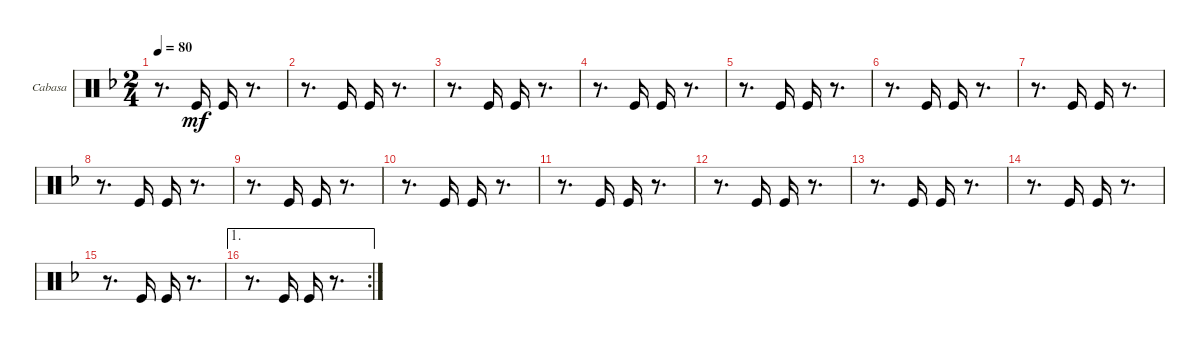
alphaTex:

\defaultSystemsLayout 4
\bracketExtendMode groupsimilarinstruments
\firstSystemTrackNameOrientation horizontal
\otherSystemsTrackNameOrientation horizontal
\track ("Cabasa" "Cabasa") {instrument percussion}
\staff {score}
\articulation defaults
\ts (2 4)
\tempo 80
\clef neutral
\ks f
r.8{d dy mf} "Kick (hit)".16 "Kick (hit)".16 r.8{d} |
r.8{d} "Kick (hit)".16 "Kick (hit)".16 r.8{d} |
r.8{d} "Kick (hit)".16 "Kick (hit)".16 r.8{d} |
r.8{d} "Kick (hit)".16 "Kick (hit)".16 r.8{d} |
r.8{d} "Kick (hit)".16 "Kick (hit)".16 r.8{d} |
r.8{d} "Kick (hit)".16 "Kick (hit)".16 r.8{d} |
r.8{d} "Kick (hit)".16 "Kick (hit)".16 r.8{d} |
r.8{d} "Kick (hit)".16 "Kick (hit)".16 r.8{d} |
r.8{d} "Kick (hit)".16 "Kick (hit)".16 r.8{d} |
r.8{d} "Kick (hit)".16 "Kick (hit)".16 r.8{d} |
r.8{d} "Kick (hit)".16 "Kick (hit)".16 r.8{d} |
r.8{d} "Kick (hit)".16 "Kick (hit)".16 r.8{d} |
r.8{d} "Kick (hit)".16 "Kick (hit)".16 r.8{d} |
r.8{d} "Kick (hit)".16 "Kick (hit)".16 r.8{d} |
r.8{d} "Kick (hit)".16 "Kick (hit)".16 r.8{d} |
\ae 1
\rc 2
r.8{d} "Kick (hit)".16 "Kick (hit)".16 r.8{d}
